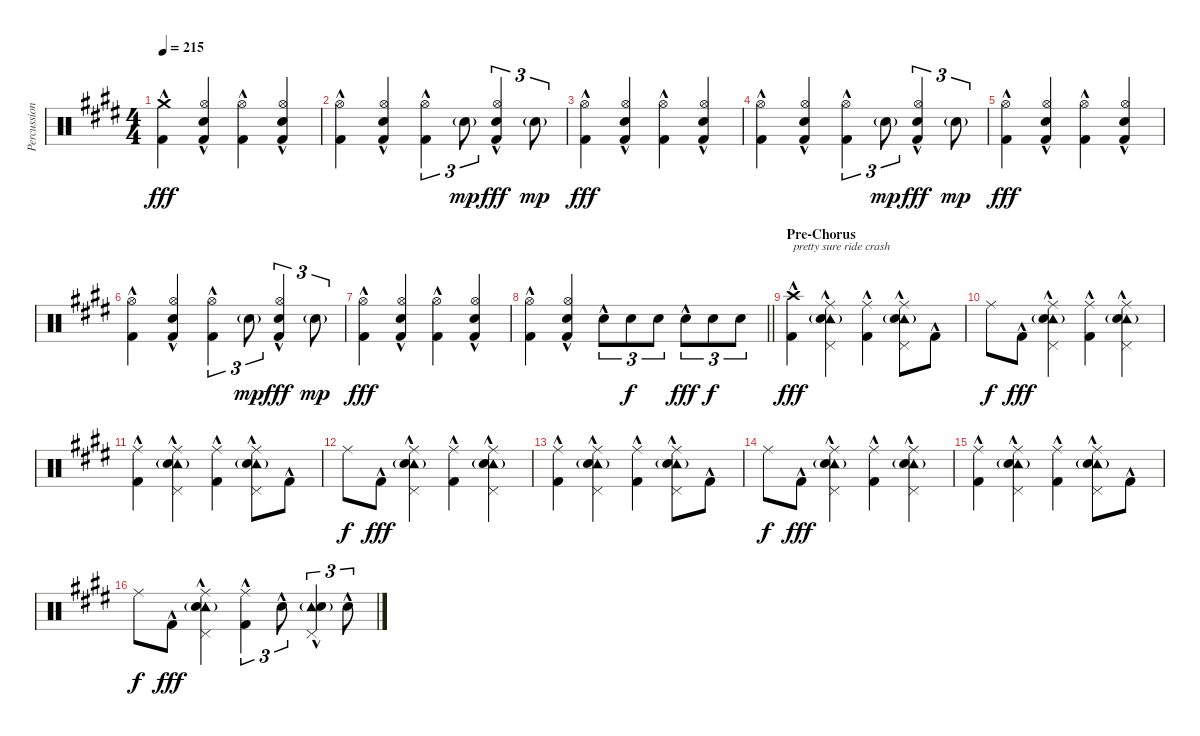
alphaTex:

\track ("Percussion" "Percussion") {instrument percussion}
\staff {score}
\articulation defaults
\ts (4 4)
\tempo 215
\clef neutral
\ks e
("Crash medium (hit)" "Kick (hit) 2"{hac}).4{dy fff} ("Hi-Hat (open)" "Electric Snare (hit)"{hac} "Kick (hit) 2"{hac}).4 ("Hi-Hat (open)" "Kick (hit) 2"{hac}).4 ("Hi-Hat (open)" "Electric Snare (hit)"{hac} "Kick (hit) 2"{hac}).4 |
("Hi-Hat (open)" "Kick (hit) 2"{hac}).4 ("Hi-Hat (open)" "Electric Snare (hit)"{hac} "Kick (hit) 2"{hac}).4 ("Hi-Hat (open)" "Kick (hit) 2"{hac}).4{tu (3 2)} "Electric Snare (hit)"{g}.8{tu (3 2) dy mp} ("Hi-Hat (open)" "Electric Snare (hit)"{hac} "Kick (hit) 2"{hac}).4{tu (3 2) dy fff} "Electric Snare (hit)"{g}.8{tu (3 2) dy mp} |
("Hi-Hat (open)" "Kick (hit) 2"{hac}).4{dy fff} ("Hi-Hat (open)" "Electric Snare (hit)"{hac} "Kick (hit) 2"{hac}).4 ("Hi-Hat (open)" "Kick (hit) 2"{hac}).4 ("Hi-Hat (open)" "Electric Snare (hit)"{hac} "Kick (hit) 2"{hac}).4 |
("Hi-Hat (open)" "Kick (hit) 2"{hac}).4 ("Hi-Hat (open)" "Electric Snare (hit)"{hac} "Kick (hit) 2"{hac}).4 ("Hi-Hat (open)" "Kick (hit) 2"{hac}).4{tu (3 2)} "Electric Snare (hit)"{g}.8{tu (3 2) dy mp} ("Hi-Hat (open)" "Electric Snare (hit)"{hac} "Kick (hit) 2"{hac}).4{tu (3 2) dy fff} "Electric Snare (hit)"{g}.8{tu (3 2) dy mp} |
("Hi-Hat (open)" "Kick (hit) 2"{hac}).4{dy fff} ("Hi-Hat (open)" "Electric Snare (hit)"{hac} "Kick (hit) 2"{hac}).4 ("Hi-Hat (open)" "Kick (hit) 2"{hac}).4 ("Hi-Hat (open)" "Electric Snare (hit)"{hac} "Kick (hit) 2"{hac}).4 |
("Hi-Hat (open)" "Kick (hit) 2"{hac}).4 ("Hi-Hat (open)" "Electric Snare (hit)"{hac} "Kick (hit) 2"{hac}).4 ("Hi-Hat (open)" "Kick (hit) 2"{hac}).4{tu (3 2)} "Electric Snare (hit)"{g}.8{tu (3 2) dy mp} ("Hi-Hat (open)" "Electric Snare (hit)"{hac} "Kick (hit) 2"{hac}).4{tu (3 2) dy fff} "Electric Snare (hit)"{g}.8{tu (3 2) dy mp} |
("Hi-Hat (open)" "Kick (hit) 2"{hac}).4{dy fff} ("Hi-Hat (open)" "Electric Snare (hit)"{hac} "Kick (hit) 2"{hac}).4 ("Hi-Hat (open)" "Kick (hit) 2"{hac}).4 ("Hi-Hat (open)" "Electric Snare (hit)"{hac} "Kick (hit) 2"{hac}).4 |
\barLineRight lightlight
("Hi-Hat (open)" "Kick (hit) 2"{hac}).4 ("Hi-Hat (open)" "Electric Snare (hit)"{hac} "Kick (hit) 2"{hac}).4 "Electric Snare (hit)"{hac}.8{tu (3 2)} "Electric Snare (hit)".8{tu (3 2) dy f} "Electric Snare (hit)".8{tu (3 2)} "Electric Snare (hit)"{hac}.8{tu (3 2) dy fff} "Electric Snare (hit)".8{tu (3 2) dy f} "Electric Snare (hit)".8{tu (3 2)} |
\section ("" "Pre-Chorus")
("Crash high (hit)" "Kick (hit) 2"{hac}).4{txt "pretty sure ride crash" dy fff} ("Tambourine (hit)"{g} "Pedal Hi-Hat (hit)" "Ride (middle)" "Electric Snare (hit)"{hac}).4 ("Ride (middle)" "Kick (hit) 2"{hac}).4 ("Tambourine (hit)"{g} "Pedal Hi-Hat (hit)" "Ride (middle)" "Electric Snare (hit)"{hac}).8 "Kick (hit) 2"{hac}.8 |
"Ride (middle)".8{dy f} "Kick (hit) 2"{hac}.8{dy fff} ("Tambourine (hit)"{g} "Pedal Hi-Hat (hit)" "Ride (middle)" "Electric Snare (hit)"{hac}).4 ("Ride (middle)" "Kick (hit) 2"{hac}).4 ("Tambourine (hit)"{g} "Pedal Hi-Hat (hit)" "Ride (middle)" "Electric Snare (hit)"{hac}).4 |
("Ride (middle)" "Kick (hit) 2"{hac}).4 ("Tambourine (hit)"{g} "Pedal Hi-Hat (hit)" "Ride (middle)" "Electric Snare (hit)"{hac}).4 ("Ride (middle)" "Kick (hit) 2"{hac}).4 ("Tambourine (hit)"{g} "Pedal Hi-Hat (hit)" "Ride (middle)" "Electric Snare (hit)"{hac}).8 "Kick (hit) 2"{hac}.8 |
"Ride (middle)".8{dy f} "Kick (hit) 2"{hac}.8{dy fff} ("Tambourine (hit)"{g} "Pedal Hi-Hat (hit)" "Ride (middle)" "Electric Snare (hit)"{hac}).4 ("Ride (middle)" "Kick (hit) 2"{hac}).4 ("Tambourine (hit)"{g} "Pedal Hi-Hat (hit)" "Ride (middle)" "Electric Snare (hit)"{hac}).4 |
("Ride (middle)" "Kick (hit) 2"{hac}).4 ("Tambourine (hit)"{g} "Pedal Hi-Hat (hit)" "Ride (middle)" "Electric Snare (hit)"{hac}).4 ("Ride (middle)" "Kick (hit) 2"{hac}).4 ("Tambourine (hit)"{g} "Pedal Hi-Hat (hit)" "Ride (middle)" "Electric Snare (hit)"{hac}).8 "Kick (hit) 2"{hac}.8 |
"Ride (middle)".8{dy f} "Kick (hit) 2"{hac}.8{dy fff} ("Tambourine (hit)"{g} "Pedal Hi-Hat (hit)" "Ride (middle)" "Electric Snare (hit)"{hac}).4 ("Ride (middle)" "Kick (hit) 2"{hac}).4 ("Tambourine (hit)"{g} "Pedal Hi-Hat (hit)" "Ride (middle)" "Electric Snare (hit)"{hac}).4 |
("Ride (middle)" "Kick (hit) 2"{hac}).4 ("Tambourine (hit)"{g} "Pedal Hi-Hat (hit)" "Ride (middle)" "Electric Snare (hit)"{hac}).4 ("Ride (middle)" "Kick (hit) 2"{hac}).4 ("Tambourine (hit)"{g} "Pedal Hi-Hat (hit)" "Ride (middle)" "Electric Snare (hit)"{hac}).8 "Kick (hit) 2"{hac}.8 |
"Ride (middle)".8{dy f} "Kick (hit) 2"{hac}.8{dy fff} ("Tambourine (hit)"{g} "Pedal Hi-Hat (hit)" "Ride (middle)" "Electric Snare (hit)"{hac}).4 ("Ride (middle)" "Kick (hit) 2"{hac}).4{tu (3 2)} "Electric Snare (hit)"{hac}.8{tu (3 2)} ("Tambourine (hit)"{g} "Pedal Hi-Hat (hit)" "Electric Snare (hit)"{hac}).4{tu (3 2)} "Electric Snare (hit)"{hac}.8{tu (3 2)}
